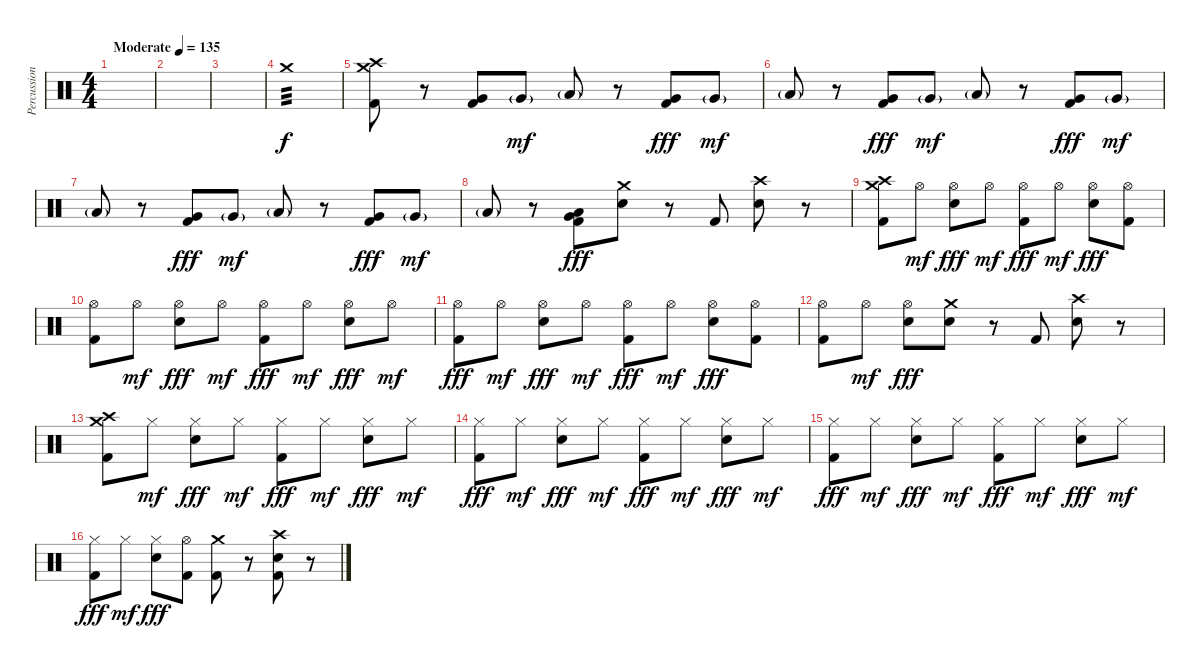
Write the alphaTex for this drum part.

\track ("Percussions" "Percussion") {instrument percussion}
\staff {score}
\articulation defaults
\ts (4 4)
\tempo (135 "Moderate")
\clef neutral
\ks c
|
|
|
"Crash medium (hit)".1{tp 3 volume 6} |
("Crash medium (hit)" "Crash high (hit)" "Kick (hit) 2").8{volume 16} r.8 ("Very Low Tom (hit)" "Kick (hit) 2").8 "Very Low Tom (hit)"{g}.8{dy mf} "Low Floor Tom (hit)"{g}.8 r.8 ("Very Low Tom (hit)" "Kick (hit) 2").8{dy fff} "Very Low Tom (hit)"{g}.8{dy mf} |
"Low Floor Tom (hit)"{g}.8 r.8 ("Very Low Tom (hit)" "Kick (hit) 2").8{dy fff} "Very Low Tom (hit)"{g}.8{dy mf} "Low Floor Tom (hit)"{g}.8 r.8 ("Very Low Tom (hit)" "Kick (hit) 2").8{dy fff} "Very Low Tom (hit)"{g}.8{dy mf} |
"Low Floor Tom (hit)"{g}.8 r.8 ("Very Low Tom (hit)" "Kick (hit) 2").8{dy fff} "Very Low Tom (hit)"{g}.8{dy mf} "Low Floor Tom (hit)"{g}.8 r.8 ("Very Low Tom (hit)" "Kick (hit) 2").8{dy fff} "Very Low Tom (hit)"{g}.8{dy mf} |
"Low Floor Tom (hit)"{g}.8 r.8 ("Low Tom (hit)" "Very Low Tom (hit)" "Kick (hit) 2").8{dy fff} ("Crash medium (hit)" "Electric Snare (hit)").8 r.8 "Kick (hit) 2".8 ("Crash high (hit)" "Electric Snare (hit)").8 r.8 |
("Crash medium (hit)" "Crash high (hit)" "Kick (hit) 2").8 "Hi-Hat (open)".8{dy mf} ("Hi-Hat (open)" "Electric Snare (hit)").8{dy fff} "Hi-Hat (open)".8{dy mf} ("Hi-Hat (open)" "Kick (hit) 2").8{dy fff} "Hi-Hat (open)".8{dy mf} ("Hi-Hat (open)" "Electric Snare (hit)").8{dy fff} ("Hi-Hat (open)" "Kick (hit) 2").8 |
("Hi-Hat (open)" "Kick (hit) 2").8 "Hi-Hat (open)".8{dy mf} ("Hi-Hat (open)" "Electric Snare (hit)").8{dy fff} "Hi-Hat (open)".8{dy mf} ("Hi-Hat (open)" "Kick (hit) 2").8{dy fff} "Hi-Hat (open)".8{dy mf} ("Hi-Hat (open)" "Electric Snare (hit)").8{dy fff} "Hi-Hat (open)".8{dy mf} |
("Hi-Hat (open)" "Kick (hit) 2").8{dy fff} "Hi-Hat (open)".8{dy mf} ("Hi-Hat (open)" "Electric Snare (hit)").8{dy fff} "Hi-Hat (open)".8{dy mf} ("Hi-Hat (open)" "Kick (hit) 2").8{dy fff} "Hi-Hat (open)".8{dy mf} ("Hi-Hat (open)" "Electric Snare (hit)").8{dy fff} ("Hi-Hat (open)" "Kick (hit) 2").8 |
("Hi-Hat (open)" "Kick (hit) 2").8 "Hi-Hat (open)".8{dy mf} ("Hi-Hat (open)" "Electric Snare (hit)").8{dy fff} ("Crash medium (hit)" "Electric Snare (hit)").8 r.8 "Kick (hit) 2".8 ("Crash high (hit)" "Electric Snare (hit)").8 r.8 |
("Crash medium (hit)" "Crash high (hit)" "Kick (hit) 2").8 "Hi-Hat (closed)".8{dy mf} ("Hi-Hat (closed)" "Electric Snare (hit)").8{dy fff} "Hi-Hat (closed)".8{dy mf} ("Hi-Hat (closed)" "Kick (hit) 2").8{dy fff} "Hi-Hat (closed)".8{dy mf} ("Hi-Hat (closed)" "Electric Snare (hit)").8{dy fff} "Hi-Hat (closed)".8{dy mf} |
("Hi-Hat (closed)" "Kick (hit) 2").8{dy fff} "Hi-Hat (closed)".8{dy mf} ("Hi-Hat (closed)" "Electric Snare (hit)").8{dy fff} "Hi-Hat (closed)".8{dy mf} ("Hi-Hat (closed)" "Kick (hit) 2").8{dy fff} "Hi-Hat (closed)".8{dy mf} ("Hi-Hat (closed)" "Electric Snare (hit)").8{dy fff} "Hi-Hat (closed)".8{dy mf} |
("Hi-Hat (closed)" "Kick (hit) 2").8{dy fff} "Hi-Hat (closed)".8{dy mf} ("Hi-Hat (closed)" "Electric Snare (hit)").8{dy fff} "Hi-Hat (closed)".8{dy mf} ("Hi-Hat (closed)" "Kick (hit) 2").8{dy fff} "Hi-Hat (closed)".8{dy mf} ("Hi-Hat (closed)" "Electric Snare (hit)").8{dy fff} "Hi-Hat (closed)".8{dy mf} |
("Hi-Hat (closed)" "Kick (hit) 2").8{dy fff} "Hi-Hat (closed)".8{dy mf} ("Hi-Hat (closed)" "Electric Snare (hit)").8{dy fff} ("Hi-Hat (open)" "Kick (hit) 2").8 ("Crash medium (hit)" "Kick (hit) 2").8 r.8 ("Crash high (hit)" "Electric Snare (hit)" "Kick (hit) 2").8 r.8
